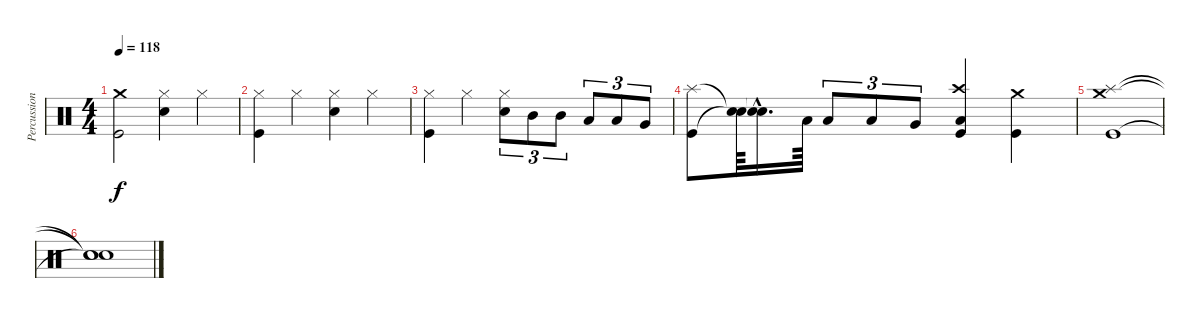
\track ("Percussioni" "Percussion") {instrument percussion}
\staff {score}
\articulation defaults
\ts (4 4)
\tempo 118
\clef neutral
\ks c
("Crash medium (hit)" "Kick (hit)").2{dy f} ("Hi-Hat (closed)" "Snare (hit) 2").4 "Hi-Hat (closed)".4 |
("Hi-Hat (closed)" "Kick (hit)").4 "Hi-Hat (closed)".4 ("Hi-Hat (closed)" "Snare (hit) 2").4 "Hi-Hat (closed)".4 |
("Hi-Hat (closed)" "Kick (hit)").4 "Hi-Hat (closed)".4 ("Hi-Hat (closed)" "Snare (hit) 2").8{tu (3 2)} "Mid Tom (hit)".8{tu (3 2)} "Mid Tom (hit)".8{tu (3 2)} "Low Tom (hit)".8{tu (3 2)} "Low Tom (hit)".8{tu (3 2)} "Very Low Tom (hit)".8{tu (3 2)} |
("Splash (hit)" "Kick (hit)").8 ("Snare (hit)"{t} "Snare (hit)"{t}).64 ("Snare (hit)"{hac t} "Snare (hit)"{hac t}).16{d} "Low Tom (hit)".64 "Low Tom (hit)".8{tu (3 2)} "Low Tom (hit)".8{tu (3 2)} "Very Low Tom (hit)".8{tu (3 2)} ("Crash high (hit)" "Low Floor Tom (hit)" "Kick (hit)").4 ("Crash medium (hit)" "Kick (hit)").4 |
("Splash (hit)" "Crash medium (hit)" "Kick (hit)").1 |
("Snare (hit)"{t} "Snare (hit)"{t} "Snare (hit)"{t}).1
